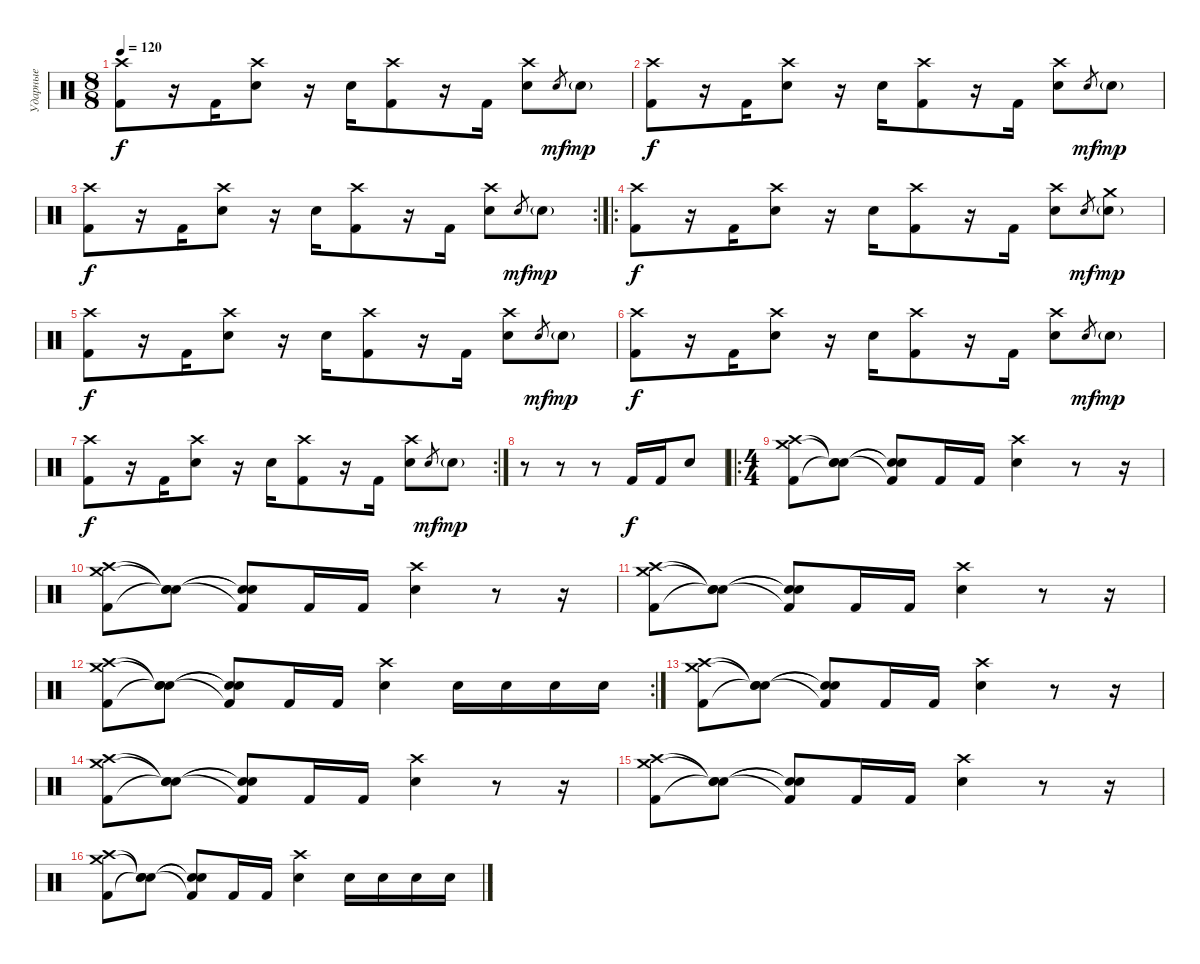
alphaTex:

\track ("Ударные" "Ударные") {instrument percussion}
\staff {score}
\articulation defaults
\ts (8 8)
\tempo 120
\clef neutral
\ks c
("Crash high (hit)" "Kick (hit) 2").8{dy f} r.16 "Kick (hit) 2".16 ("Crash high (hit)" "Electric Snare (hit)").8 r.16 "Electric Snare (hit)".16 ("Crash high (hit)" "Kick (hit) 2").8 r.16 "Kick (hit) 2".16 ("Crash high (hit)" "Electric Snare (hit)").8 "Electric Snare (hit)".8{gr dy mf} "Electric Snare (hit)"{g}.8{dy mp} |
("Crash high (hit)" "Kick (hit) 2").8{dy f} r.16 "Kick (hit) 2".16 ("Crash high (hit)" "Electric Snare (hit)").8 r.16 "Electric Snare (hit)".16 ("Crash high (hit)" "Kick (hit) 2").8 r.16 "Kick (hit) 2".16 ("Crash high (hit)" "Electric Snare (hit)").8 "Electric Snare (hit)".8{gr dy mf} "Electric Snare (hit)"{g}.8{dy mp} |
\rc 2
("Crash high (hit)" "Kick (hit) 2").8{dy f} r.16 "Kick (hit) 2".16 ("Crash high (hit)" "Electric Snare (hit)").8 r.16 "Electric Snare (hit)".16 ("Crash high (hit)" "Kick (hit) 2").8 r.16 "Kick (hit) 2".16 ("Crash high (hit)" "Electric Snare (hit)").8 "Electric Snare (hit)".8{gr dy mf} "Electric Snare (hit)"{g}.8{dy mp} |
\ro
("Crash high (hit)" "Kick (hit) 2").8{dy f} r.16 "Kick (hit) 2".16 ("Crash high (hit)" "Electric Snare (hit)").8 r.16 "Electric Snare (hit)".16 ("Crash high (hit)" "Kick (hit) 2").8 r.16 "Kick (hit) 2".16 ("Crash high (hit)" "Electric Snare (hit)").8 "Electric Snare (hit)".8{gr dy mf} ("Crash medium (hit)" "Electric Snare (hit)"{g}).8{dy mp} |
("Crash high (hit)" "Kick (hit) 2").8{dy f} r.16 "Kick (hit) 2".16 ("Crash high (hit)" "Electric Snare (hit)").8 r.16 "Electric Snare (hit)".16 ("Crash high (hit)" "Kick (hit) 2").8 r.16 "Kick (hit) 2".16 ("Crash high (hit)" "Electric Snare (hit)").8 "Electric Snare (hit)".8{gr dy mf} "Electric Snare (hit)"{g}.8{dy mp} |
("Crash high (hit)" "Kick (hit) 2").8{dy f} r.16 "Kick (hit) 2".16 ("Crash high (hit)" "Electric Snare (hit)").8 r.16 "Electric Snare (hit)".16 ("Crash high (hit)" "Kick (hit) 2").8 r.16 "Kick (hit) 2".16 ("Crash high (hit)" "Electric Snare (hit)").8 "Electric Snare (hit)".8{gr dy mf} "Electric Snare (hit)"{g}.8{dy mp} |
\rc 2
("Crash high (hit)" "Kick (hit) 2").8{dy f} r.16 "Kick (hit) 2".16 ("Crash high (hit)" "Electric Snare (hit)").8 r.16 "Electric Snare (hit)".16 ("Crash high (hit)" "Kick (hit) 2").8 r.16 "Kick (hit) 2".16 ("Crash high (hit)" "Electric Snare (hit)").8 "Electric Snare (hit)".8{gr dy mf} "Electric Snare (hit)"{g}.8{dy mp} |
r.8 r.8 r.8 "Kick (hit) 2".16{dy f} "Kick (hit) 2".16 "Snare (hit) 2".8 |
\ro
\ts (4 4)
("Crash high (hit)" "Kick (hit) 2" "Crash medium (hit)").8 ("Snare (hit)"{t} "Snare (hit)"{t} "Snare (hit)"{t}).8 ("Snare (hit)"{t} "Kick (hit) 2"{t} "Snare (hit)"{t}).8 "Kick (hit) 2".16 "Kick (hit) 2".16 ("Crash high (hit)" "Snare (hit) 2").4 r.8 r.16 |
("Crash high (hit)" "Kick (hit) 2" "Crash medium (hit)").8 ("Snare (hit)"{t} "Snare (hit)"{t} "Snare (hit)"{t}).8 ("Snare (hit)"{t} "Kick (hit) 2"{t} "Snare (hit)"{t}).8 "Kick (hit) 2".16 "Kick (hit) 2".16 ("Crash high (hit)" "Snare (hit) 2").4 r.8 r.16 |
("Crash high (hit)" "Kick (hit) 2" "Crash medium (hit)").8 ("Snare (hit)"{t} "Snare (hit)"{t} "Snare (hit)"{t}).8 ("Snare (hit)"{t} "Kick (hit) 2"{t} "Snare (hit)"{t}).8 "Kick (hit) 2".16 "Kick (hit) 2".16 ("Crash high (hit)" "Snare (hit) 2").4 r.8 r.16 |
\rc 2
("Crash high (hit)" "Kick (hit) 2" "Crash medium (hit)").8 ("Snare (hit)"{t} "Snare (hit)"{t} "Snare (hit)"{t}).8 ("Snare (hit)"{t} "Kick (hit) 2"{t} "Snare (hit)"{t}).8 "Kick (hit) 2".16 "Kick (hit) 2".16 ("Crash high (hit)" "Snare (hit) 2").4 "Snare (hit) 2".16 "Snare (hit) 2".16 "Snare (hit) 2".16 "Snare (hit) 2".16 |
("Crash high (hit)" "Kick (hit) 2" "Crash medium (hit)").8 ("Snare (hit)"{t} "Snare (hit)"{t} "Snare (hit)"{t}).8 ("Snare (hit)"{t} "Kick (hit) 2"{t} "Snare (hit)"{t}).8 "Kick (hit) 2".16 "Kick (hit) 2".16 ("Crash high (hit)" "Snare (hit) 2").4 r.8 r.16 |
("Crash high (hit)" "Kick (hit) 2" "Crash medium (hit)").8 ("Snare (hit)"{t} "Snare (hit)"{t} "Snare (hit)"{t}).8 ("Snare (hit)"{t} "Kick (hit) 2"{t} "Snare (hit)"{t}).8 "Kick (hit) 2".16 "Kick (hit) 2".16 ("Crash high (hit)" "Snare (hit) 2").4 r.8 r.16 |
("Crash high (hit)" "Kick (hit) 2" "Crash medium (hit)").8 ("Snare (hit)"{t} "Snare (hit)"{t} "Snare (hit)"{t}).8 ("Snare (hit)"{t} "Kick (hit) 2"{t} "Snare (hit)"{t}).8 "Kick (hit) 2".16 "Kick (hit) 2".16 ("Crash high (hit)" "Snare (hit) 2").4 r.8 r.16 |
("Crash high (hit)" "Kick (hit) 2" "Crash medium (hit)").8 ("Snare (hit)"{t} "Snare (hit)"{t} "Snare (hit)"{t}).8 ("Snare (hit)"{t} "Kick (hit) 2"{t} "Snare (hit)"{t}).8 "Kick (hit) 2".16 "Kick (hit) 2".16 ("Crash high (hit)" "Snare (hit) 2").4 "Snare (hit) 2".16 "Snare (hit) 2".16 "Snare (hit) 2".16 "Snare (hit) 2".16
